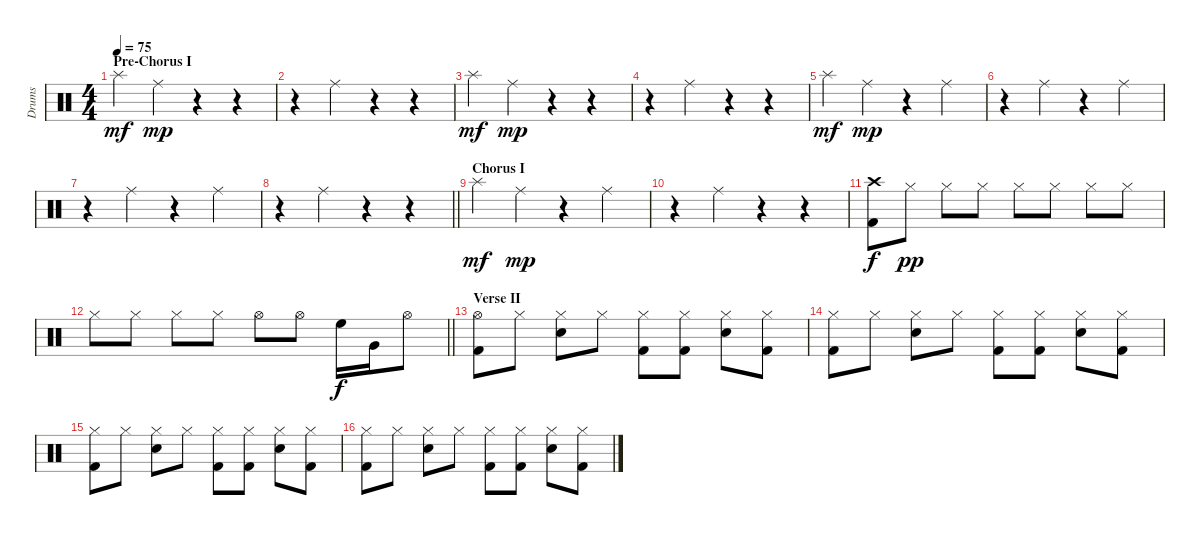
\track ("Drums" "Drums") {instrument percussion}
\staff {score}
\articulation defaults
\ts (4 4)
\section ("" "Pre-Chorus I")
\tempo 75
\clef neutral
\ks c "Splash (hit)".4{dy mf} "Ride (middle)".4{dy mp}
r.4 r.4 |
r.4 "Ride (middle)".4 r.4 r.4 |
"Splash (hit)".4{dy mf} "Ride (middle)".4{dy mp} r.4 r.4 |
r.4 "Ride (middle)".4 r.4 r.4 |
"Splash (hit)".4{dy mf} "Ride (middle)".4{dy mp} r.4 "Ride (middle)".4 |
r.4 "Ride (middle)".4 r.4 "Ride (middle)".4 |
r.4 "Ride (middle)".4 r.4 "Ride (middle)".4 |
\barLineRight lightlight
r.4 "Ride (middle)".4 r.4 r.4 |
\section ("" "Chorus I")
"Splash (hit)".4{dy mf} "Ride (middle)".4{dy mp} r.4 "Ride (middle)".4 |
r.4 "Ride (middle)".4 r.4 r.4 |
("Crash high (hit)" "Kick (hit) 2").8{dy f} "Hi-Hat (closed)".8{dy pp} "Hi-Hat (closed)".8 "Hi-Hat (closed)".8 "Hi-Hat (closed)".8 "Hi-Hat (closed)".8 "Hi-Hat (closed)".8 "Hi-Hat (closed)".8 |
\barLineRight lightlight "Hi-Hat (closed)".8 "Hi-Hat (closed)".8 "Hi-Hat (closed)".8 "Hi-Hat (closed)".8 "Hi-Hat (open)".8 "Hi-Hat (open)".8 "High Floor Tom (hit)".16{dy f} "Very Low Tom (hit)".16 "Hi-Hat (open)".8
|
\section ("" "Verse II")
("Hi-Hat (open)" "Kick (hit) 2").8 "Hi-Hat (closed)".8 ("Hi-Hat (closed)" "Snare (hit) 2").8 "Hi-Hat (closed)".8 ("Hi-Hat (closed)" "Kick (hit) 2").8 ("Hi-Hat (closed)" "Kick (hit) 2").8 ("Hi-Hat (closed)" "Snare (hit) 2").8 ("Hi-Hat (closed)" "Kick (hit) 2").8 |
("Hi-Hat (closed)" "Kick (hit) 2").8 "Hi-Hat (closed)".8 ("Hi-Hat (closed)" "Snare (hit) 2").8 "Hi-Hat (closed)".8 ("Hi-Hat (closed)" "Kick (hit) 2").8 ("Hi-Hat (closed)" "Kick (hit) 2").8 ("Hi-Hat (closed)" "Snare (hit) 2").8 ("Hi-Hat (closed)" "Kick (hit) 2").8 |
("Hi-Hat (closed)" "Kick (hit) 2").8 "Hi-Hat (closed)".8 ("Hi-Hat (closed)" "Snare (hit) 2").8 "Hi-Hat (closed)".8 ("Hi-Hat (closed)" "Kick (hit) 2").8 ("Hi-Hat (closed)" "Kick (hit) 2").8 ("Hi-Hat (closed)" "Snare (hit) 2").8 ("Hi-Hat (closed)" "Kick (hit) 2").8 |
("Hi-Hat (closed)" "Kick (hit) 2").8 "Hi-Hat (closed)".8 ("Hi-Hat (closed)" "Snare (hit) 2").8 "Hi-Hat (closed)".8 ("Hi-Hat (closed)" "Kick (hit) 2").8 ("Hi-Hat (closed)" "Kick (hit) 2").8 ("Hi-Hat (closed)" "Snare (hit) 2").8 ("Hi-Hat (closed)" "Kick (hit) 2").8
